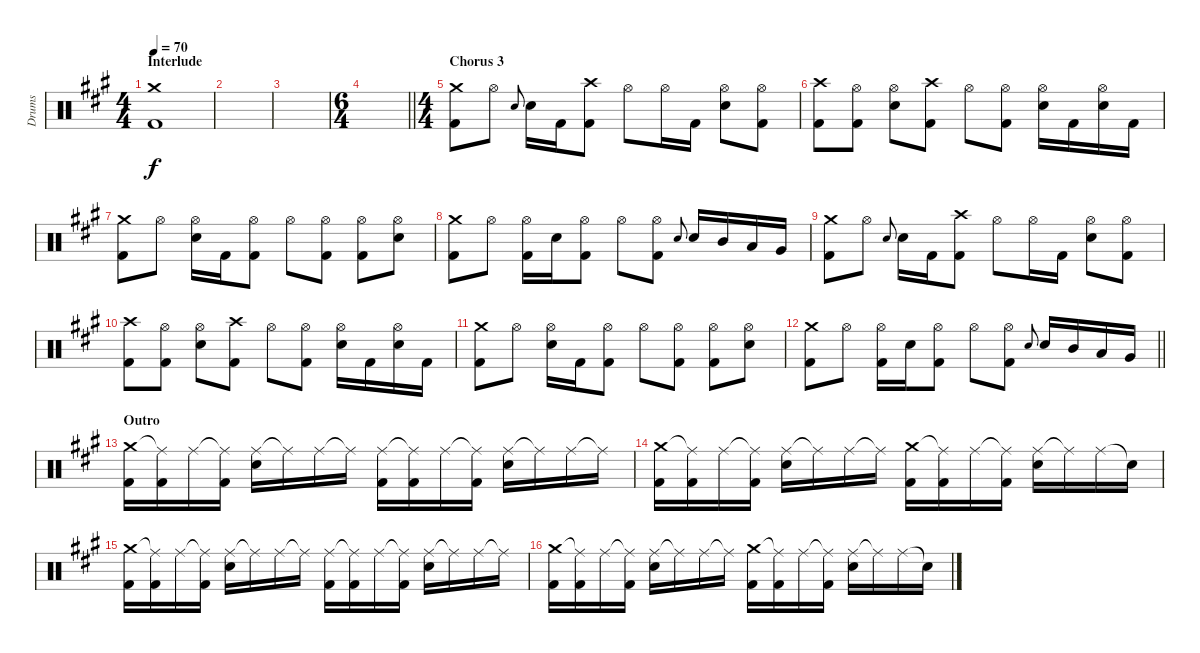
\track ("Drums" "Drums") {instrument percussion}
\staff {score}
\articulation defaults
\ts (4 4)
\section ("" "Interlude")
\tempo 70
\clef neutral
\ks a
("Crash medium (hit)" "Kick (hit) 2").1{dy f} |
|
|
\ts (6 4)
\barLineRight lightlight
|
\ts (4 4)
\section ("" "Chorus 3")
("Crash medium (hit)" "Kick (hit) 2").8 "Hi-Hat (open)".8 "Snare (hit) 2".8{gr onbeat} "Snare (hit) 2".16 "Kick (hit) 2".16 ("Crash high (hit)" "Kick (hit) 2").8 "Hi-Hat (open)".8 "Hi-Hat (open)".16 "Kick (hit) 2".16 ("Hi-Hat (open)" "Snare (hit) 2").8 ("Hi-Hat (open)" "Kick (hit) 2").8 |
("Crash high (hit)" "Kick (hit) 2").8 ("Hi-Hat (open)" "Kick (hit) 2").8 ("Hi-Hat (open)" "Snare (hit) 2").8 ("Crash high (hit)" "Kick (hit) 2").8 "Hi-Hat (open)".8 ("Hi-Hat (open)" "Kick (hit) 2").8 ("Hi-Hat (open)" "Snare (hit) 2").16 "Kick (hit) 2".16 ("Hi-Hat (open)" "Snare (hit) 2").16 "Kick (hit) 2".16 |
("Crash medium (hit)" "Kick (hit) 2").8 "Hi-Hat (open)".8 ("Hi-Hat (open)" "Snare (hit) 2").16 "Kick (hit) 2".16 ("Hi-Hat (open)" "Kick (hit) 2").8 "Hi-Hat (open)".8 ("Hi-Hat (open)" "Kick (hit) 2").8 ("Hi-Hat (open)" "Kick (hit) 2").8 ("Hi-Hat (open)" "Snare (hit) 2").8 |
("Crash medium (hit)" "Kick (hit) 2").8 "Hi-Hat (open)".8 ("Hi-Hat (open)" "Kick (hit) 2").16 "Snare (hit) 2".16 ("Hi-Hat (open)" "Kick (hit) 2").8 "Hi-Hat (open)".8 ("Hi-Hat (open)" "Kick (hit) 2").8 "Snare (hit) 2".8{gr onbeat} "Snare (hit) 2".16 "Mid Tom (hit)".16 "Low Tom (hit)".16 "Very Low Tom (hit)".16 |
("Crash medium (hit)" "Kick (hit) 2").8 "Hi-Hat (open)".8 "Snare (hit) 2".8{gr onbeat} "Snare (hit) 2".16 "Kick (hit) 2".16 ("Crash high (hit)" "Kick (hit) 2").8 "Hi-Hat (open)".8 "Hi-Hat (open)".16 "Kick (hit) 2".16 ("Hi-Hat (open)" "Snare (hit) 2").8 ("Hi-Hat (open)" "Kick (hit) 2").8 |
("Crash high (hit)" "Kick (hit) 2").8 ("Hi-Hat (open)" "Kick (hit) 2").8 ("Hi-Hat (open)" "Snare (hit) 2").8 ("Crash high (hit)" "Kick (hit) 2").8 "Hi-Hat (open)".8 ("Hi-Hat (open)" "Kick (hit) 2").8 ("Hi-Hat (open)" "Snare (hit) 2").16 "Kick (hit) 2".16 ("Hi-Hat (open)" "Snare (hit) 2").16 "Kick (hit) 2".16 |
("Crash medium (hit)" "Kick (hit) 2").8 "Hi-Hat (open)".8 ("Hi-Hat (open)" "Snare (hit) 2").16 "Kick (hit) 2".16 ("Hi-Hat (open)" "Kick (hit) 2").8 "Hi-Hat (open)".8 ("Hi-Hat (open)" "Kick (hit) 2").8 ("Hi-Hat (open)" "Kick (hit) 2").8 ("Hi-Hat (open)" "Snare (hit) 2").8 |
\barLineRight lightlight
("Crash medium (hit)" "Kick (hit) 2").8 "Hi-Hat (open)".8 ("Hi-Hat (open)" "Kick (hit) 2").16 "Snare (hit) 2".16 ("Hi-Hat (open)" "Kick (hit) 2").8 "Hi-Hat (open)".8 ("Hi-Hat (open)" "Kick (hit) 2").8 "Snare (hit) 2".8{gr onbeat} "Snare (hit) 2".16 "Mid Tom (hit)".16 "Low Tom (hit)".16 "Very Low Tom (hit)".16 |
\section ("" "Outro")
("Crash medium (hit)" "Kick (hit) 2").16 ("Ride (middle)"{t} "Kick (hit) 2").16 "Ride (middle)".16 ("Ride (middle)"{t} "Kick (hit) 2").16 ("Ride (middle)" "Snare (hit) 2").16 "Ride (middle)"{t}.16 "Ride (middle)".16 "Ride (middle)"{t}.16 ("Ride (middle)" "Kick (hit) 2").16 ("Ride (middle)"{t} "Kick (hit) 2").16 "Ride (middle)".16 ("Ride (middle)"{t} "Kick (hit) 2").16 ("Ride (middle)" "Snare (hit) 2").16 "Ride (middle)"{t}.16 "Ride (middle)".16 "Ride (middle)"{t}.16 |
("Crash medium (hit)" "Kick (hit) 2").16 ("Ride (middle)"{t} "Kick (hit) 2").16 "Ride (middle)".16 ("Ride (middle)"{t} "Kick (hit) 2").16 ("Ride (middle)" "Snare (hit) 2").16 "Ride (middle)"{t}.16 "Ride (middle)".16 "Ride (middle)"{t}.16 ("Crash medium (hit)" "Kick (hit) 2").16 ("Ride (middle)"{t} "Kick (hit) 2").16 "Ride (middle)".16 ("Ride (middle)"{t} "Kick (hit) 2").16 ("Ride (middle)" "Snare (hit) 2").16 "Ride (middle)"{t}.16 "Ride (middle)".16 "Snare (hit)"{t}.16 |
("Crash medium (hit)" "Kick (hit) 2").16 ("Ride (middle)"{t} "Kick (hit) 2").16 "Ride (middle)".16 ("Ride (middle)"{t} "Kick (hit) 2").16 ("Ride (middle)" "Snare (hit) 2").16 "Ride (middle)"{t}.16 "Ride (middle)".16 "Ride (middle)"{t}.16 ("Ride (middle)" "Kick (hit) 2").16 ("Ride (middle)"{t} "Kick (hit) 2").16 "Ride (middle)".16 ("Ride (middle)"{t} "Kick (hit) 2").16 ("Ride (middle)" "Snare (hit) 2").16 "Ride (middle)"{t}.16 "Ride (middle)".16 "Ride (middle)"{t}.16 |
("Crash medium (hit)" "Kick (hit) 2").16 ("Ride (middle)"{t} "Kick (hit) 2").16 "Ride (middle)".16 ("Ride (middle)"{t} "Kick (hit) 2").16 ("Ride (middle)" "Snare (hit) 2").16 "Ride (middle)"{t}.16 "Ride (middle)".16 "Ride (middle)"{t}.16 ("Crash medium (hit)" "Kick (hit) 2").16 ("Ride (middle)"{t} "Kick (hit) 2").16 "Ride (middle)".16 ("Ride (middle)"{t} "Kick (hit) 2").16 ("Ride (middle)" "Snare (hit) 2").16 "Ride (middle)"{t}.16 "Ride (middle)".16 "Snare (hit)"{t}.16
